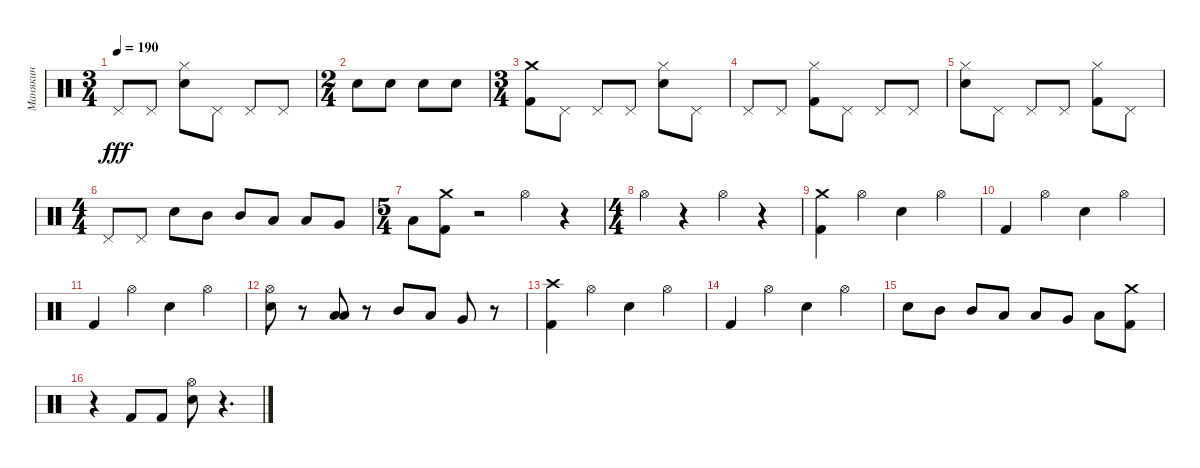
\track ("Манякин" "Манякин") {instrument percussion}
\staff {score}
\articulation defaults
\ts (3 4)
\tempo 190
\clef neutral
\ks c "Pedal Hi-Hat (hit)".8{dy fff} "Pedal Hi-Hat (hit)".8
("Hi-Hat (closed)" "Snare (hit) 2").8 "Pedal Hi-Hat (hit)".8 "Pedal Hi-Hat (hit)".8 "Pedal Hi-Hat (hit)".8 |
\ts (2 4)
"Snare (hit) 2".8 "Snare (hit) 2".8 "Snare (hit) 2".8 "Snare (hit) 2".8 |
\ts (3 4)
("Crash medium (hit)" "Kick (hit) 2").8 "Pedal Hi-Hat (hit)".8 "Pedal Hi-Hat (hit)".8 "Pedal Hi-Hat (hit)".8 ("Snare (hit) 2" "Hi-Hat (closed)").8 "Pedal Hi-Hat (hit)".8 |
"Pedal Hi-Hat (hit)".8 "Pedal Hi-Hat (hit)".8 ("Hi-Hat (closed)" "Kick (hit) 2").8 "Pedal Hi-Hat (hit)".8 "Pedal Hi-Hat (hit)".8 "Pedal Hi-Hat (hit)".8 |
("Hi-Hat (closed)" "Snare (hit) 2").8 "Pedal Hi-Hat (hit)".8 "Pedal Hi-Hat (hit)".8 "Pedal Hi-Hat (hit)".8 ("Hi-Hat (closed)" "Kick (hit) 2").8 "Pedal Hi-Hat (hit)".8 |
\ts (4 4)
"Pedal Hi-Hat (hit)".8 "Pedal Hi-Hat (hit)".8 "Snare (hit) 2".8 "Mid Tom (hit)".8 "Mid Tom (hit)".8 "Low Tom (hit)".8 "Low Tom (hit)".8 "Very Low Tom (hit)".8 |
\ts (5 4)
"Low Floor Tom (hit)".8 ("Crash medium (hit)" "Kick (hit) 2").8 r.2 "Hi-Hat (open)".4 r.4 |
\ts (4 4)
"Hi-Hat (open)".4 r.4 "Hi-Hat (open)".4 r.4 |
("Kick (hit) 2" "Crash medium (hit)").4 "Hi-Hat (open)".4 "Snare (hit) 2".4 "Hi-Hat (open)".4 |
"Kick (hit) 2".4 "Hi-Hat (open)".4 "Snare (hit) 2".4 "Hi-Hat (open)".4 |
"Kick (hit) 2".4 "Hi-Hat (open)".4 "Snare (hit) 2".4 "Hi-Hat (open)".4 |
("Hi-Hat (open)" "Snare (hit) 2").8 r.8 ("Low Tom (hit)" "Low Floor Tom (hit)").8 r.8 "Mid Tom (hit)".8 "Low Tom (hit)".8 "Very Low Tom (hit)".8 r.8 |
("Kick (hit) 2" "Crash high (hit)").4 "Hi-Hat (open)".4 "Snare (hit) 2".4 "Hi-Hat (open)".4 |
"Kick (hit) 2".4 "Hi-Hat (open)".4 "Snare (hit) 2".4 "Hi-Hat (open)".4 |
"Snare (hit) 2".8 "Mid Tom (hit)".8 "Mid Tom (hit)".8 "Low Tom (hit)".8 "Low Tom (hit)".8 "Very Low Tom (hit)".8 "Low Floor Tom (hit)".8 ("Crash medium (hit)" "Kick (hit) 2").8 |
r.4 "Kick (hit) 2".8 "Kick (hit) 2".8 ("Hi-Hat (open)" "Snare (hit) 2").8 r.4{d}
